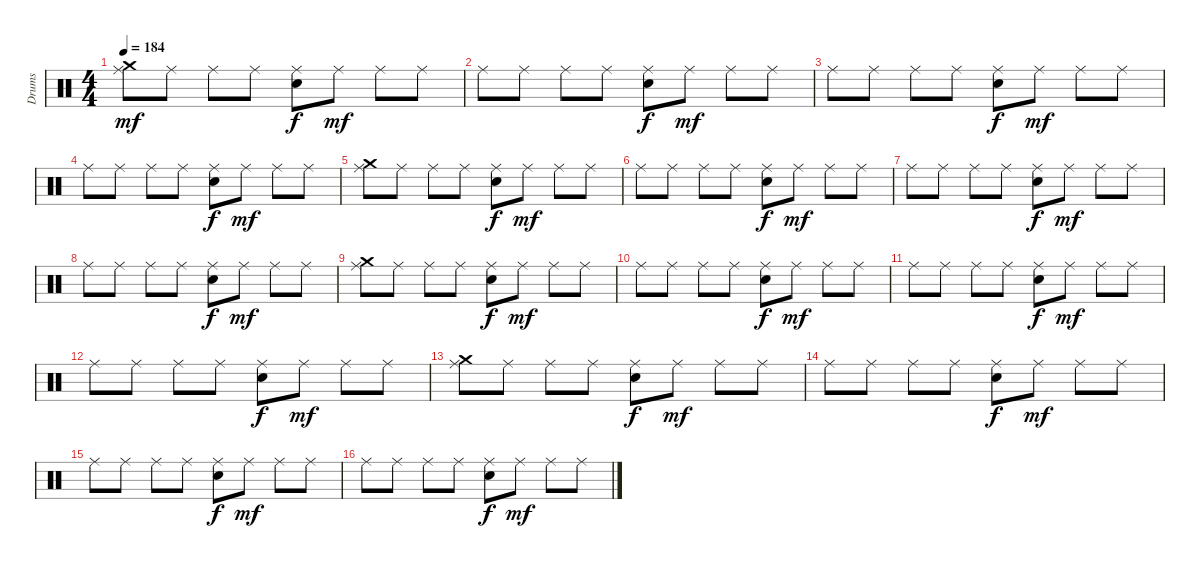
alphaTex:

\track ("Drums" "Drums") {instrument percussion}
\staff {score}
\articulation defaults
\ts (4 4)
\tempo 184
\clef neutral
\ks c
("Crash medium (hit)" "Ride (middle)").8{dy mf} "Ride (middle)".8 "Ride (middle)".8 "Ride (middle)".8 ("Ride (middle)" "Electric Snare (hit)").8{dy f} "Ride (middle)".8{dy mf} "Ride (middle)".8 "Ride (middle)".8 |
"Ride (middle)".8 "Ride (middle)".8 "Ride (middle)".8 "Ride (middle)".8 ("Ride (middle)" "Electric Snare (hit)").8{dy f} "Ride (middle)".8{dy mf} "Ride (middle)".8 "Ride (middle)".8 |
"Ride (middle)".8 "Ride (middle)".8 "Ride (middle)".8 "Ride (middle)".8 ("Ride (middle)" "Electric Snare (hit)").8{dy f} "Ride (middle)".8{dy mf} "Ride (middle)".8 "Ride (middle)".8 |
"Ride (middle)".8 "Ride (middle)".8 "Ride (middle)".8 "Ride (middle)".8 ("Ride (middle)" "Electric Snare (hit)").8{dy f} "Ride (middle)".8{dy mf} "Ride (middle)".8 "Ride (middle)".8 |
("Crash medium (hit)" "Ride (middle)").8 "Ride (middle)".8 "Ride (middle)".8 "Ride (middle)".8 ("Ride (middle)" "Electric Snare (hit)").8{dy f} "Ride (middle)".8{dy mf} "Ride (middle)".8 "Ride (middle)".8 |
"Ride (middle)".8 "Ride (middle)".8 "Ride (middle)".8 "Ride (middle)".8 ("Ride (middle)" "Electric Snare (hit)").8{dy f} "Ride (middle)".8{dy mf} "Ride (middle)".8 "Ride (middle)".8 |
"Ride (middle)".8 "Ride (middle)".8 "Ride (middle)".8 "Ride (middle)".8 ("Ride (middle)" "Electric Snare (hit)").8{dy f} "Ride (middle)".8{dy mf} "Ride (middle)".8 "Ride (middle)".8 |
"Ride (middle)".8 "Ride (middle)".8 "Ride (middle)".8 "Ride (middle)".8 ("Ride (middle)" "Electric Snare (hit)").8{dy f} "Ride (middle)".8{dy mf} "Ride (middle)".8 "Ride (middle)".8 |
("Crash medium (hit)" "Ride (middle)").8 "Ride (middle)".8 "Ride (middle)".8 "Ride (middle)".8 ("Ride (middle)" "Electric Snare (hit)").8{dy f} "Ride (middle)".8{dy mf} "Ride (middle)".8 "Ride (middle)".8 |
"Ride (middle)".8 "Ride (middle)".8 "Ride (middle)".8 "Ride (middle)".8 ("Ride (middle)" "Electric Snare (hit)").8{dy f} "Ride (middle)".8{dy mf} "Ride (middle)".8 "Ride (middle)".8 |
"Ride (middle)".8 "Ride (middle)".8 "Ride (middle)".8 "Ride (middle)".8 ("Ride (middle)" "Electric Snare (hit)").8{dy f} "Ride (middle)".8{dy mf} "Ride (middle)".8 "Ride (middle)".8 |
"Ride (middle)".8 "Ride (middle)".8 "Ride (middle)".8 "Ride (middle)".8 ("Ride (middle)" "Electric Snare (hit)").8{dy f} "Ride (middle)".8{dy mf} "Ride (middle)".8 "Ride (middle)".8 |
("Crash medium (hit)" "Ride (middle)").8 "Ride (middle)".8 "Ride (middle)".8 "Ride (middle)".8 ("Ride (middle)" "Electric Snare (hit)").8{dy f} "Ride (middle)".8{dy mf} "Ride (middle)".8 "Ride (middle)".8 |
"Ride (middle)".8 "Ride (middle)".8 "Ride (middle)".8 "Ride (middle)".8 ("Ride (middle)" "Electric Snare (hit)").8{dy f} "Ride (middle)".8{dy mf} "Ride (middle)".8 "Ride (middle)".8 |
"Ride (middle)".8 "Ride (middle)".8 "Ride (middle)".8 "Ride (middle)".8 ("Ride (middle)" "Electric Snare (hit)").8{dy f} "Ride (middle)".8{dy mf} "Ride (middle)".8 "Ride (middle)".8 |
"Ride (middle)".8 "Ride (middle)".8 "Ride (middle)".8 "Ride (middle)".8 ("Ride (middle)" "Electric Snare (hit)").8{dy f} "Ride (middle)".8{dy mf} "Ride (middle)".8 "Ride (middle)".8
